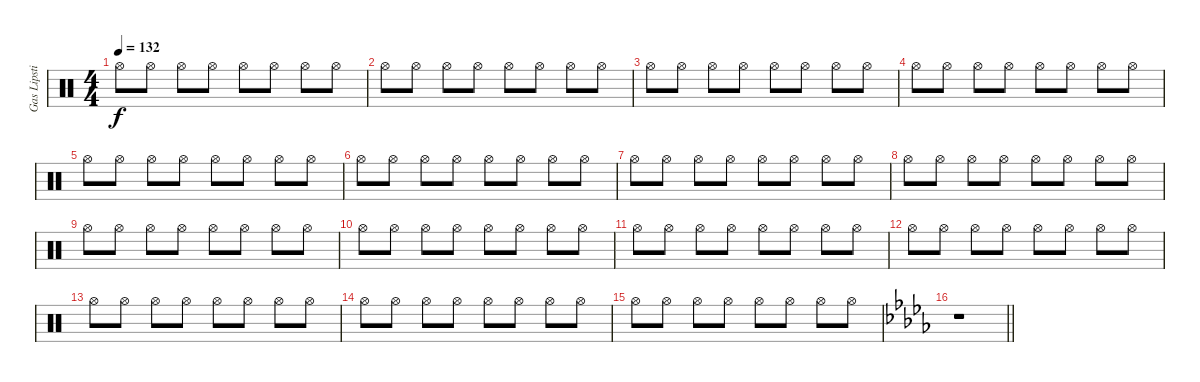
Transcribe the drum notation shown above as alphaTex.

\track ("Gas Lipstick (Drums)" "Gas Lipsti") {instrument percussion}
\staff {score}
\articulation defaults
\ts (4 4)
\tempo 132
\clef neutral
\ks c "Hi-Hat (open)".8{dy f} "Hi-Hat (open)".8 "Hi-Hat (open)".8 "Hi-Hat (open)".8 "Hi-Hat (open)".8 "Hi-Hat (open)".8 "Hi-Hat (open)".8 "Hi-Hat (open)".8
|
"Hi-Hat (open)".8 "Hi-Hat (open)".8 "Hi-Hat (open)".8 "Hi-Hat (open)".8 "Hi-Hat (open)".8 "Hi-Hat (open)".8 "Hi-Hat (open)".8 "Hi-Hat (open)".8 |
"Hi-Hat (open)".8 "Hi-Hat (open)".8 "Hi-Hat (open)".8 "Hi-Hat (open)".8 "Hi-Hat (open)".8 "Hi-Hat (open)".8 "Hi-Hat (open)".8 "Hi-Hat (open)".8 |
"Hi-Hat (open)".8 "Hi-Hat (open)".8 "Hi-Hat (open)".8 "Hi-Hat (open)".8 "Hi-Hat (open)".8 "Hi-Hat (open)".8 "Hi-Hat (open)".8 "Hi-Hat (open)".8 |
"Hi-Hat (open)".8 "Hi-Hat (open)".8 "Hi-Hat (open)".8 "Hi-Hat (open)".8 "Hi-Hat (open)".8 "Hi-Hat (open)".8 "Hi-Hat (open)".8 "Hi-Hat (open)".8 |
"Hi-Hat (open)".8 "Hi-Hat (open)".8 "Hi-Hat (open)".8 "Hi-Hat (open)".8 "Hi-Hat (open)".8 "Hi-Hat (open)".8 "Hi-Hat (open)".8 "Hi-Hat (open)".8 |
"Hi-Hat (open)".8 "Hi-Hat (open)".8 "Hi-Hat (open)".8 "Hi-Hat (open)".8 "Hi-Hat (open)".8 "Hi-Hat (open)".8 "Hi-Hat (open)".8 "Hi-Hat (open)".8 |
"Hi-Hat (open)".8 "Hi-Hat (open)".8 "Hi-Hat (open)".8 "Hi-Hat (open)".8 "Hi-Hat (open)".8 "Hi-Hat (open)".8 "Hi-Hat (open)".8 "Hi-Hat (open)".8 |
"Hi-Hat (open)".8 "Hi-Hat (open)".8 "Hi-Hat (open)".8 "Hi-Hat (open)".8 "Hi-Hat (open)".8 "Hi-Hat (open)".8 "Hi-Hat (open)".8 "Hi-Hat (open)".8 |
"Hi-Hat (open)".8 "Hi-Hat (open)".8 "Hi-Hat (open)".8 "Hi-Hat (open)".8 "Hi-Hat (open)".8 "Hi-Hat (open)".8 "Hi-Hat (open)".8 "Hi-Hat (open)".8 |
"Hi-Hat (open)".8 "Hi-Hat (open)".8 "Hi-Hat (open)".8 "Hi-Hat (open)".8 "Hi-Hat (open)".8 "Hi-Hat (open)".8 "Hi-Hat (open)".8 "Hi-Hat (open)".8 |
"Hi-Hat (open)".8 "Hi-Hat (open)".8 "Hi-Hat (open)".8 "Hi-Hat (open)".8 "Hi-Hat (open)".8 "Hi-Hat (open)".8 "Hi-Hat (open)".8 "Hi-Hat (open)".8 |
"Hi-Hat (open)".8 "Hi-Hat (open)".8 "Hi-Hat (open)".8 "Hi-Hat (open)".8 "Hi-Hat (open)".8 "Hi-Hat (open)".8 "Hi-Hat (open)".8 "Hi-Hat (open)".8 |
"Hi-Hat (open)".8 "Hi-Hat (open)".8 "Hi-Hat (open)".8 "Hi-Hat (open)".8 "Hi-Hat (open)".8 "Hi-Hat (open)".8 "Hi-Hat (open)".8 "Hi-Hat (open)".8 |
"Hi-Hat (open)".8 "Hi-Hat (open)".8 "Hi-Hat (open)".8 "Hi-Hat (open)".8 "Hi-Hat (open)".8 "Hi-Hat (open)".8 "Hi-Hat (open)".8 "Hi-Hat (open)".8 |
\barLineRight lightlight
\ks db
r.1
